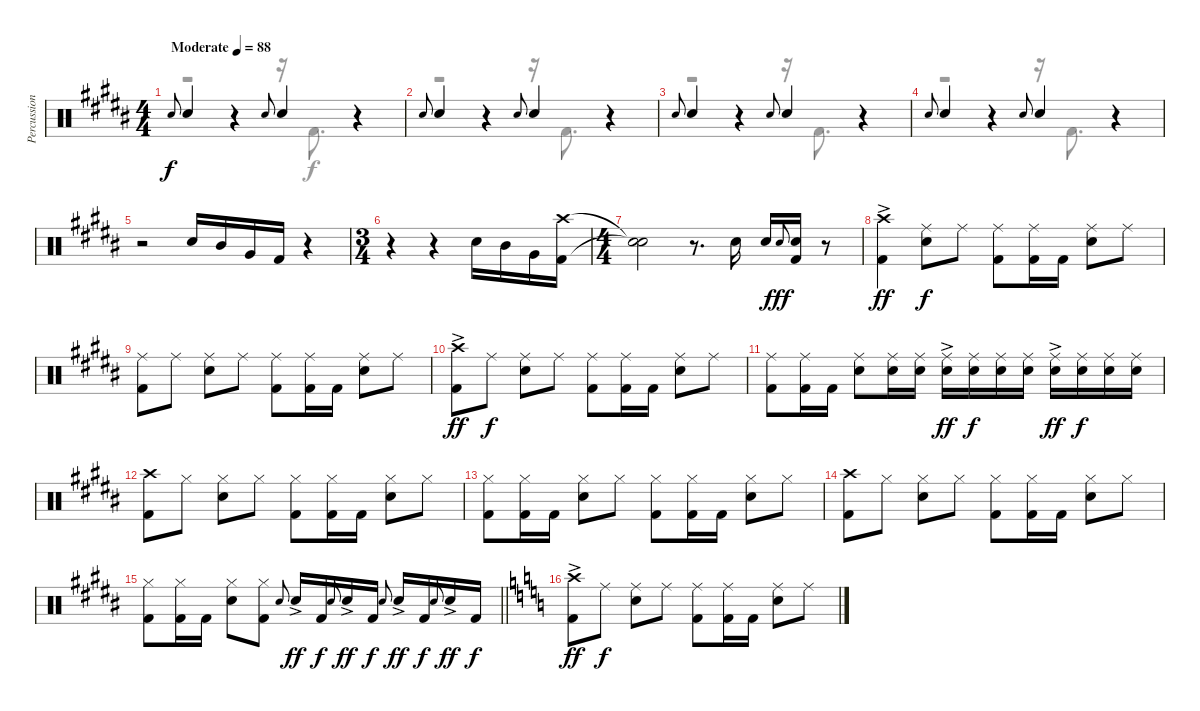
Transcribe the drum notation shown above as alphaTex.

\track ("Percussion" "Percussion") {instrument percussion}
\staff {score}
\articulation defaults
\voice
\ts (4 4)
\tempo (88 "Moderate")
\clef neutral
\ks b "Snare (hit) 2".8{gr onbeat dy f} "Snare (hit) 2".4
r.4 "Snare (hit) 2".8{gr onbeat} "Snare (hit) 2".4 r.4 |
"Snare (hit) 2".8{gr onbeat} "Snare (hit) 2".4 r.4 "Snare (hit) 2".8{gr onbeat} "Snare (hit) 2".4 r.4 |
"Snare (hit) 2".8{gr onbeat} "Snare (hit) 2".4 r.4 "Snare (hit) 2".8{gr onbeat} "Snare (hit) 2".4 r.4 |
"Snare (hit) 2".8{gr onbeat} "Snare (hit) 2".4 r.4 "Snare (hit) 2".8{gr onbeat} "Snare (hit) 2".4 r.4 |
r.2 "Snare (hit) 2".16 "Mid Tom (hit)".16 "Very Low Tom (hit)".16 "Kick (hit) 2".16 r.4 |
\ts (3 4)
r.4 r.4 "Snare (hit) 2".16 "Mid Tom (hit)".16 "Very Low Tom (hit)".16 ("Crash high (hit)" "Kick (hit) 2").16 |
\ts (4 4)
("Snare (hit)"{t} "Snare (hit)"{t}).2 r.8{d} "Snare (hit) 2".16 "Snare (hit) 2".16 "Snare (hit) 2".8{gr onbeat dy fff} ("Snare (hit) 2" "Kick (hit) 2").16 r.8 |
("Crash high (hit)"{ac} "Kick (hit) 2").4{dy ff} ("Ride (middle)" "Snare (hit) 2").8{dy f} "Ride (middle)".8 ("Ride (middle)" "Kick (hit) 2").8 ("Ride (middle)" "Kick (hit) 2").16 "Kick (hit) 2".16 ("Ride (middle)" "Snare (hit) 2").8 "Ride (middle)".8 |
("Ride (middle)" "Kick (hit) 2").8 "Ride (middle)".8 ("Ride (middle)" "Snare (hit) 2").8 "Ride (middle)".8 ("Ride (middle)" "Kick (hit) 2").8 ("Ride (middle)" "Kick (hit) 2").16 "Kick (hit) 2".16 ("Ride (middle)" "Snare (hit) 2").8 "Ride (middle)".8 |
("Crash high (hit)"{ac} "Kick (hit) 2").8{dy ff} "Ride (middle)".8{dy f} ("Ride (middle)" "Snare (hit) 2").8 "Ride (middle)".8 ("Ride (middle)" "Kick (hit) 2").8 ("Ride (middle)" "Kick (hit) 2").16 "Kick (hit) 2".16 ("Ride (middle)" "Snare (hit) 2").8 "Ride (middle)".8 |
("Ride (middle)" "Kick (hit) 2").8 ("Ride (middle)" "Kick (hit) 2").16 "Kick (hit) 2".16 ("Ride (middle)" "Snare (hit) 2").8 ("Ride (middle)" "Snare (hit) 2").16 ("Ride (middle)" "Snare (hit) 2").16 ("Ride (middle)"{ac} "Snare (hit) 2"{ac}).16{dy ff} ("Ride (middle)" "Snare (hit) 2").16{dy f} ("Ride (middle)" "Snare (hit) 2").16 ("Ride (middle)" "Snare (hit) 2").16 ("Ride (middle)"{ac} "Snare (hit) 2"{ac}).16{dy ff} ("Ride (middle)" "Snare (hit) 2").16{dy f} ("Ride (middle)" "Snare (hit) 2").16 ("Ride (middle)" "Snare (hit) 2").16 |
("Crash high (hit)" "Kick (hit) 2").8 "Hi-Hat (closed)".8 ("Hi-Hat (closed)" "Snare (hit) 2").8 "Hi-Hat (closed)".8 ("Hi-Hat (closed)" "Kick (hit) 2").8 ("Hi-Hat (closed)" "Kick (hit) 2").16 "Kick (hit) 2".16 ("Hi-Hat (closed)" "Snare (hit) 2").8 "Hi-Hat (closed)".8 |
("Hi-Hat (closed)" "Kick (hit) 2").8 ("Hi-Hat (closed)" "Kick (hit) 2").16 "Kick (hit) 2".16 ("Hi-Hat (closed)" "Snare (hit) 2").8 "Hi-Hat (closed)".8 ("Hi-Hat (closed)" "Kick (hit) 2").8 ("Hi-Hat (closed)" "Kick (hit) 2").16 "Kick (hit) 2".16 ("Hi-Hat (closed)" "Snare (hit) 2").8 "Hi-Hat (closed)".8 |
("Crash high (hit)" "Kick (hit) 2").8 "Hi-Hat (closed)".8 ("Hi-Hat (closed)" "Snare (hit) 2").8 "Hi-Hat (closed)".8 ("Hi-Hat (closed)" "Kick (hit) 2").8 ("Hi-Hat (closed)" "Kick (hit) 2").16 "Kick (hit) 2".16 ("Hi-Hat (closed)" "Snare (hit) 2").8 "Hi-Hat (closed)".8 |
\barLineRight lightlight
("Hi-Hat (closed)" "Kick (hit) 2").8 ("Hi-Hat (closed)" "Kick (hit) 2").16 "Kick (hit) 2".16 ("Hi-Hat (closed)" "Snare (hit) 2").8 ("Hi-Hat (closed)" "Kick (hit) 2").8 "Snare (hit) 2".8{gr onbeat} "Snare (hit) 2"{ac}.16{dy ff} "Kick (hit) 2".16{dy f} "Snare (hit) 2".8{gr onbeat} "Snare (hit) 2"{ac}.16{dy ff} "Kick (hit) 2".16{dy f} "Snare (hit) 2".8{gr onbeat} "Snare (hit) 2"{ac}.16{dy ff} "Kick (hit) 2".16{dy f} "Snare (hit) 2".8{gr onbeat} "Snare (hit) 2"{ac}.16{dy ff} "Kick (hit) 2".16{dy f} |
\ks aminor
("Crash high (hit)"{ac} "Kick (hit) 2").8{dy ff} "Ride (middle)".8{dy f} ("Ride (middle)" "Snare (hit) 2").8 "Ride (middle)".8 ("Ride (middle)" "Kick (hit) 2").8 ("Ride (middle)" "Kick (hit) 2").16 "Kick (hit) 2".16 ("Ride (middle)" "Snare (hit) 2").8 "Ride (middle)".8
\voice
\clef neutral
\ottava regular
\simile none
\ks b
r.2{dy f} r.16 "Kick (hit) 2".8{d} r.4 |
r.2 r.16 "Kick (hit) 2".8{d} r.4 |
r.2 r.16 "Kick (hit) 2".8{d} r.4 |
r.2 r.16 "Kick (hit) 2".8{d} r.4 |
|
|
|
|
|
|
|
|
|
|
\barLineRight lightlight
|
\ks aminor
